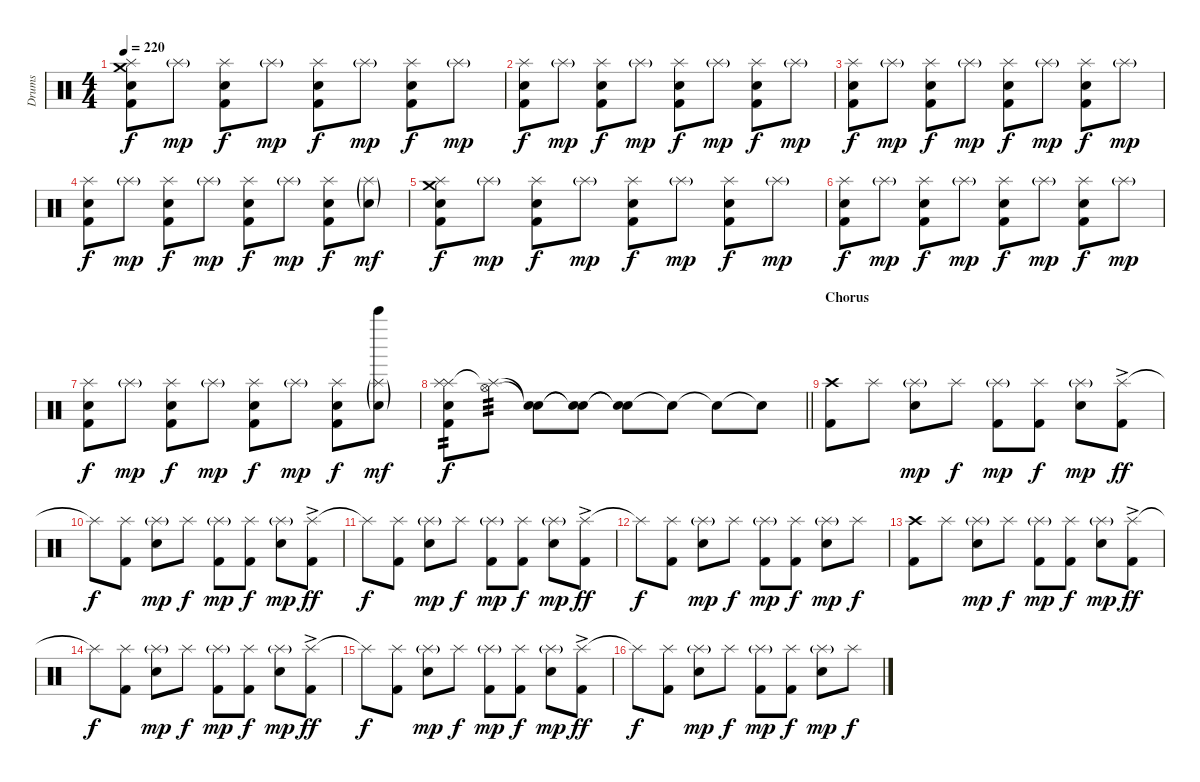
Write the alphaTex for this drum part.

\track ("Drums" "Drums") {instrument percussion}
\staff {score}
\articulation defaults
\ts (4 4)
\tempo 220
\clef neutral
\ks c
("Crash medium (hit)" "Splash (hit)" "Electric Snare (hit)" "Kick (hit) 2").8{dy f} "Splash (hit)"{g}.8{dy mp} ("Splash (hit)" "Electric Snare (hit)" "Kick (hit) 2").8{dy f} "Splash (hit)"{g}.8{dy mp} ("Splash (hit)" "Electric Snare (hit)" "Kick (hit) 2").8{dy f} "Splash (hit)"{g}.8{dy mp} ("Splash (hit)" "Electric Snare (hit)" "Kick (hit) 2").8{dy f} "Splash (hit)"{g}.8{dy mp} |
("Splash (hit)" "Electric Snare (hit)" "Kick (hit) 2").8{dy f} "Splash (hit)"{g}.8{dy mp} ("Splash (hit)" "Electric Snare (hit)" "Kick (hit) 2").8{dy f} "Splash (hit)"{g}.8{dy mp} ("Splash (hit)" "Electric Snare (hit)" "Kick (hit) 2").8{dy f} "Splash (hit)"{g}.8{dy mp} ("Splash (hit)" "Electric Snare (hit)" "Kick (hit) 2").8{dy f} "Splash (hit)"{g}.8{dy mp} |
("Splash (hit)" "Electric Snare (hit)" "Kick (hit) 2").8{dy f} "Splash (hit)"{g}.8{dy mp} ("Splash (hit)" "Electric Snare (hit)" "Kick (hit) 2").8{dy f} "Splash (hit)"{g}.8{dy mp} ("Splash (hit)" "Electric Snare (hit)" "Kick (hit) 2").8{dy f} "Splash (hit)"{g}.8{dy mp} ("Splash (hit)" "Electric Snare (hit)" "Kick (hit) 2").8{dy f} "Splash (hit)"{g}.8{dy mp} |
("Splash (hit)" "Electric Snare (hit)" "Kick (hit) 2").8{dy f} "Splash (hit)"{g}.8{dy mp} ("Splash (hit)" "Electric Snare (hit)" "Kick (hit) 2").8{dy f} "Splash (hit)"{g}.8{dy mp} ("Splash (hit)" "Electric Snare (hit)" "Kick (hit) 2").8{dy f} "Splash (hit)"{g}.8{dy mp} ("Splash (hit)" "Electric Snare (hit)" "Kick (hit) 2").8{dy f} ("Splash (hit)"{g} "Electric Snare (hit)"{g}).8{dy mf} |
("Crash medium (hit)" "Splash (hit)" "Electric Snare (hit)" "Kick (hit) 2").8{dy f} "Splash (hit)"{g}.8{dy mp} ("Splash (hit)" "Electric Snare (hit)" "Kick (hit) 2").8{dy f} "Splash (hit)"{g}.8{dy mp} ("Splash (hit)" "Electric Snare (hit)" "Kick (hit) 2").8{dy f} "Splash (hit)"{g}.8{dy mp} ("Splash (hit)" "Electric Snare (hit)" "Kick (hit) 2").8{dy f} "Splash (hit)"{g}.8{dy mp} |
("Splash (hit)" "Electric Snare (hit)" "Kick (hit) 2").8{dy f} "Splash (hit)"{g}.8{dy mp} ("Splash (hit)" "Electric Snare (hit)" "Kick (hit) 2").8{dy f} "Splash (hit)"{g}.8{dy mp} ("Splash (hit)" "Electric Snare (hit)" "Kick (hit) 2").8{dy f} "Splash (hit)"{g}.8{dy mp} ("Splash (hit)" "Electric Snare (hit)" "Kick (hit) 2").8{dy f} "Splash (hit)"{g}.8{dy mp} |
("Splash (hit)" "Electric Snare (hit)" "Kick (hit) 2").8{dy f} "Splash (hit)"{g}.8{dy mp} ("Splash (hit)" "Electric Snare (hit)" "Kick (hit) 2").8{dy f} "Splash (hit)"{g}.8{dy mp} ("Splash (hit)" "Electric Snare (hit)" "Kick (hit) 2").8{dy f} "Splash (hit)"{g}.8{dy mp} ("Splash (hit)" "Electric Snare (hit)" "Kick (hit) 2").8{dy f} ("Bell Tree (hit)" "Splash (hit)"{g} "Electric Snare (hit)"{g}).8{dy mf} |
\barLineRight lightlight
("Splash (hit)" "Splash (hit)" "Electric Snare (hit)" "Kick (hit) 2").8{tp 2 dy f} ("Hi-Hat (open)" "Splash (hit)"{t}).8{tp 3} ("Snare (hit)"{t} "Snare (hit)"{t}).8 ("Snare (hit)"{t} "Snare (hit)"{t}).8 ("Snare (hit)"{t} "Snare (hit)"{t}).8 "Snare (hit)"{t}.8 "Snare (hit)"{t}.8 "Snare (hit)"{t}.8 |
\section ("" "Chorus")
("Crash high (hit)" "Kick (hit) 2").8 "Splash (hit)".8 ("Splash (hit)"{g} "Electric Snare (hit)").8{dy mp} "Splash (hit)".8{dy f} ("Splash (hit)"{g} "Kick (hit) 2").8{dy mp} ("Splash (hit)" "Kick (hit) 2").8{dy f} ("Splash (hit)"{g} "Electric Snare (hit)").8{dy mp} ("Splash (hit)"{ac} "Kick (hit) 2").8{dy ff} |
"Splash (hit)"{t}.8{dy f} ("Splash (hit)" "Kick (hit) 2").8 ("Splash (hit)"{g} "Electric Snare (hit)").8{dy mp} "Splash (hit)".8{dy f} ("Splash (hit)"{g} "Kick (hit) 2").8{dy mp} ("Splash (hit)" "Kick (hit) 2").8{dy f} ("Splash (hit)"{g} "Electric Snare (hit)").8{dy mp} ("Splash (hit)"{ac} "Kick (hit) 2").8{dy ff} |
"Splash (hit)"{t}.8{dy f} ("Splash (hit)" "Kick (hit) 2").8 ("Splash (hit)"{g} "Electric Snare (hit)").8{dy mp} "Splash (hit)".8{dy f} ("Splash (hit)"{g} "Kick (hit) 2").8{dy mp} ("Splash (hit)" "Kick (hit) 2").8{dy f} ("Splash (hit)"{g} "Electric Snare (hit)").8{dy mp} ("Splash (hit)"{ac} "Kick (hit) 2").8{dy ff} |
"Splash (hit)"{t}.8{dy f} ("Splash (hit)" "Kick (hit) 2").8 ("Splash (hit)"{g} "Electric Snare (hit)").8{dy mp} "Splash (hit)".8{dy f} ("Splash (hit)"{g} "Kick (hit) 2").8{dy mp} ("Splash (hit)" "Kick (hit) 2").8{dy f} ("Splash (hit)"{g} "Electric Snare (hit)").8{dy mp} "Splash (hit)".8{dy f} |
("Crash high (hit)" "Kick (hit) 2").8 "Splash (hit)".8 ("Splash (hit)"{g} "Electric Snare (hit)").8{dy mp} "Splash (hit)".8{dy f} ("Splash (hit)"{g} "Kick (hit) 2").8{dy mp} ("Splash (hit)" "Kick (hit) 2").8{dy f} ("Splash (hit)"{g} "Electric Snare (hit)").8{dy mp} ("Splash (hit)"{ac} "Kick (hit) 2").8{dy ff} |
"Splash (hit)"{t}.8{dy f} ("Splash (hit)" "Kick (hit) 2").8 ("Splash (hit)"{g} "Electric Snare (hit)").8{dy mp} "Splash (hit)".8{dy f} ("Splash (hit)"{g} "Kick (hit) 2").8{dy mp} ("Splash (hit)" "Kick (hit) 2").8{dy f} ("Splash (hit)"{g} "Electric Snare (hit)").8{dy mp} ("Splash (hit)"{ac} "Kick (hit) 2").8{dy ff} |
"Splash (hit)"{t}.8{dy f} ("Splash (hit)" "Kick (hit) 2").8 ("Splash (hit)"{g} "Electric Snare (hit)").8{dy mp} "Splash (hit)".8{dy f} ("Splash (hit)"{g} "Kick (hit) 2").8{dy mp} ("Splash (hit)" "Kick (hit) 2").8{dy f} ("Splash (hit)"{g} "Electric Snare (hit)").8{dy mp} ("Splash (hit)"{ac} "Kick (hit) 2").8{dy ff} |
"Splash (hit)"{t}.8{dy f} ("Splash (hit)" "Kick (hit) 2").8 ("Splash (hit)"{g} "Electric Snare (hit)").8{dy mp} "Splash (hit)".8{dy f} ("Splash (hit)"{g} "Kick (hit) 2").8{dy mp} ("Splash (hit)" "Kick (hit) 2").8{dy f} ("Splash (hit)"{g} "Electric Snare (hit)").8{dy mp} "Splash (hit)".8{dy f}
